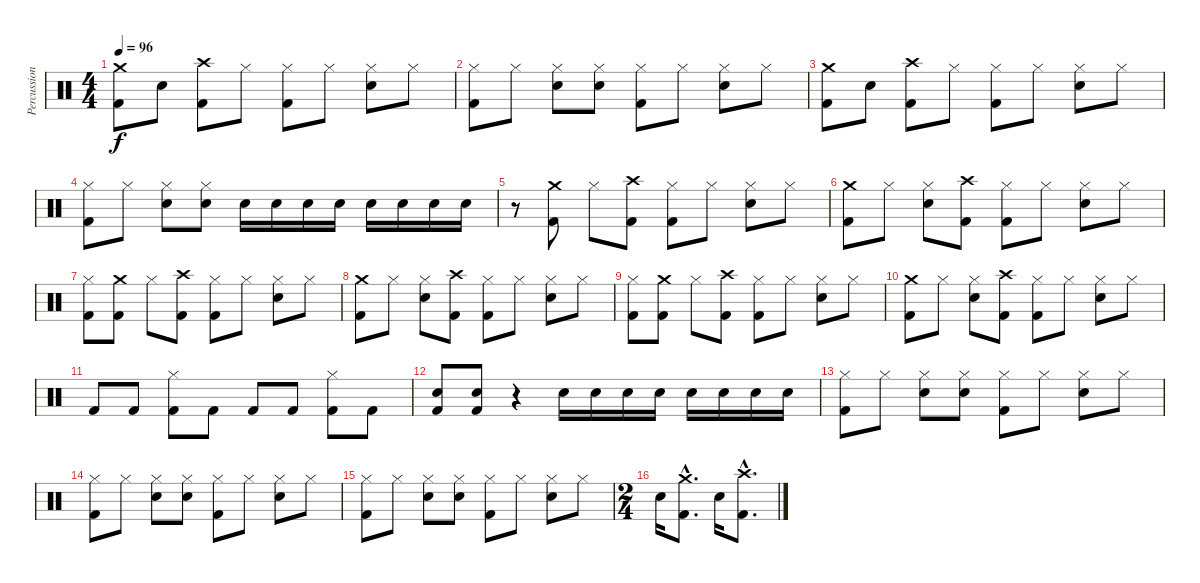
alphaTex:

\track ("Percussion" "Percussion") {instrument percussion}
\staff {score}
\articulation defaults
\ts (4 4)
\tempo 96
\clef neutral
\ks c
("Crash medium (hit)" "Kick (hit) 2").8{dy f} "Snare (hit) 2".8 ("Crash high (hit)" "Kick (hit) 2").8 "Hi-Hat (closed)".8 ("Hi-Hat (closed)" "Kick (hit) 2").8 "Hi-Hat (closed)".8 ("Hi-Hat (closed)" "Snare (hit) 2").8 "Hi-Hat (closed)".8 |
("Hi-Hat (closed)" "Kick (hit) 2").8 "Hi-Hat (closed)".8 ("Hi-Hat (closed)" "Snare (hit) 2").8 ("Hi-Hat (closed)" "Snare (hit) 2").8 ("Hi-Hat (closed)" "Kick (hit) 2").8 "Hi-Hat (closed)".8 ("Hi-Hat (closed)" "Snare (hit) 2").8 "Hi-Hat (closed)".8 |
("Crash medium (hit)" "Kick (hit) 2").8 "Snare (hit) 2".8 ("Crash high (hit)" "Kick (hit) 2").8 "Hi-Hat (closed)".8 ("Hi-Hat (closed)" "Kick (hit) 2").8 "Hi-Hat (closed)".8 ("Hi-Hat (closed)" "Snare (hit) 2").8 "Hi-Hat (closed)".8 |
("Hi-Hat (closed)" "Kick (hit) 2").8 "Hi-Hat (closed)".8 ("Hi-Hat (closed)" "Snare (hit) 2").8 ("Hi-Hat (closed)" "Snare (hit) 2").8 "Snare (hit) 2".16 "Snare (hit) 2".16 "Snare (hit) 2".16 "Snare (hit) 2".16 "Snare (hit) 2".16 "Snare (hit) 2".16 "Snare (hit) 2".16 "Snare (hit) 2".16 |
r.8 ("Crash medium (hit)" "Kick (hit) 2").8 "Hi-Hat (closed)".8 ("Crash high (hit)" "Kick (hit) 2").8 ("Hi-Hat (closed)" "Kick (hit) 2").8 "Hi-Hat (closed)".8 ("Hi-Hat (closed)" "Snare (hit) 2").8 "Hi-Hat (closed)".8 |
("Crash medium (hit)" "Kick (hit) 2").8 "Hi-Hat (closed)".8 ("Hi-Hat (closed)" "Snare (hit) 2").8 ("Crash high (hit)" "Kick (hit) 2").8 ("Hi-Hat (closed)" "Kick (hit) 2").8 "Hi-Hat (closed)".8 ("Hi-Hat (closed)" "Snare (hit) 2").8 "Hi-Hat (closed)".8 |
("Kick (hit) 2" "Hi-Hat (closed)").8 ("Crash medium (hit)" "Kick (hit) 2").8 "Hi-Hat (closed)".8 ("Crash high (hit)" "Kick (hit) 2").8 ("Hi-Hat (closed)" "Kick (hit) 2").8 "Hi-Hat (closed)".8 ("Hi-Hat (closed)" "Snare (hit) 2").8 "Hi-Hat (closed)".8 |
("Crash medium (hit)" "Kick (hit) 2").8 "Hi-Hat (closed)".8 ("Hi-Hat (closed)" "Snare (hit) 2").8 ("Crash high (hit)" "Kick (hit) 2").8 ("Hi-Hat (closed)" "Kick (hit) 2").8 "Hi-Hat (closed)".8 ("Hi-Hat (closed)" "Snare (hit) 2").8 "Hi-Hat (closed)".8 |
("Kick (hit) 2" "Hi-Hat (closed)").8 ("Crash medium (hit)" "Kick (hit) 2").8 "Hi-Hat (closed)".8 ("Crash high (hit)" "Kick (hit) 2").8 ("Hi-Hat (closed)" "Kick (hit) 2").8 "Hi-Hat (closed)".8 ("Hi-Hat (closed)" "Snare (hit) 2").8 "Hi-Hat (closed)".8 |
("Crash medium (hit)" "Kick (hit) 2").8 "Hi-Hat (closed)".8 ("Hi-Hat (closed)" "Snare (hit) 2").8 ("Crash high (hit)" "Kick (hit) 2").8 ("Hi-Hat (closed)" "Kick (hit) 2").8 "Hi-Hat (closed)".8 ("Hi-Hat (closed)" "Snare (hit) 2").8 "Hi-Hat (closed)".8 |
"Kick (hit) 2".8 "Kick (hit) 2".8 ("Hi-Hat (closed)" "Kick (hit) 2").8 "Kick (hit) 2".8 "Kick (hit) 2".8 "Kick (hit) 2".8 ("Hi-Hat (closed)" "Kick (hit) 2").8 "Kick (hit) 2".8 |
("Snare (hit) 2" "Kick (hit) 2").8 ("Snare (hit) 2" "Kick (hit) 2").8 r.4 "Snare (hit) 2".16 "Snare (hit) 2".16 "Snare (hit) 2".16 "Snare (hit) 2".16 "Snare (hit) 2".16 "Snare (hit) 2".16 "Snare (hit) 2".16 "Snare (hit) 2".16 |
("Hi-Hat (closed)" "Kick (hit) 2").8 "Hi-Hat (closed)".8 ("Hi-Hat (closed)" "Snare (hit) 2").8 ("Hi-Hat (closed)" "Snare (hit) 2").8 ("Hi-Hat (closed)" "Kick (hit) 2").8 "Hi-Hat (closed)".8 ("Hi-Hat (closed)" "Snare (hit) 2").8 "Hi-Hat (closed)".8 |
("Hi-Hat (closed)" "Kick (hit) 2").8 "Hi-Hat (closed)".8 ("Hi-Hat (closed)" "Snare (hit) 2").8 ("Hi-Hat (closed)" "Snare (hit) 2").8 ("Hi-Hat (closed)" "Kick (hit) 2").8 "Hi-Hat (closed)".8 ("Hi-Hat (closed)" "Snare (hit) 2").8 "Hi-Hat (closed)".8 |
("Hi-Hat (closed)" "Kick (hit) 2").8 "Hi-Hat (closed)".8 ("Hi-Hat (closed)" "Snare (hit) 2").8 ("Hi-Hat (closed)" "Snare (hit) 2").8 ("Hi-Hat (closed)" "Kick (hit) 2").8 "Hi-Hat (closed)".8 ("Hi-Hat (closed)" "Snare (hit) 2").8 "Hi-Hat (closed)".8 |
\ts (2 4)
"Snare (hit) 2".16 ("Crash medium (hit)"{hac} "Kick (hit) 2"{hac}).8{d} "Snare (hit) 2".16 ("Crash high (hit)"{hac} "Kick (hit) 2"{hac}).8{d}
